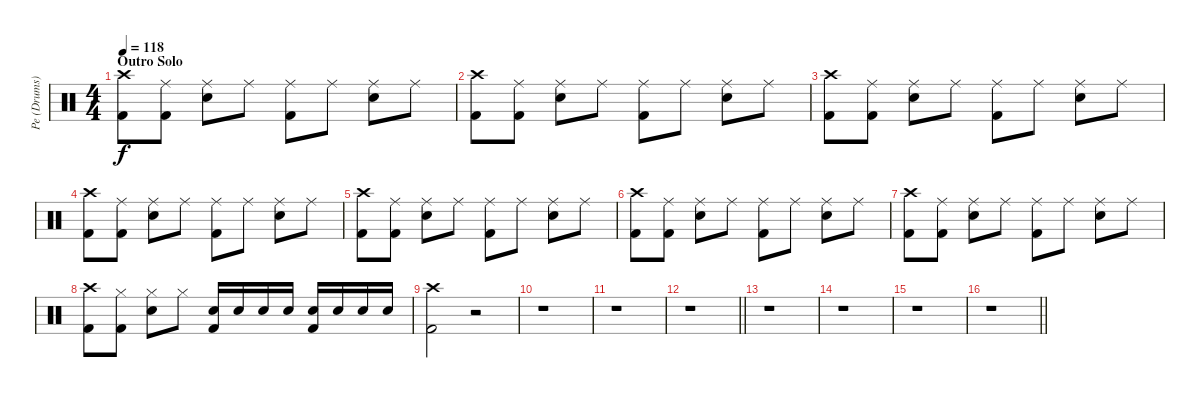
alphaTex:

\track ("Pe (Drums)" "Pe (Drums)") {instrument percussion}
\staff {score}
\articulation defaults
\ts (4 4)
\section ("" "Outro Solo")
\tempo 118
\clef neutral
\ks c
("Crash high (hit)" "Kick (hit) 2").8{dy f} ("Ride (middle)" "Kick (hit) 2").8 ("Ride (middle)" "Snare (hit) 2").8 "Ride (middle)".8 ("Ride (middle)" "Kick (hit) 2").8 "Ride (middle)".8 ("Ride (middle)" "Snare (hit) 2").8 "Ride (middle)".8 |
("Crash high (hit)" "Kick (hit) 2").8 ("Ride (middle)" "Kick (hit) 2").8 ("Ride (middle)" "Snare (hit) 2").8 "Ride (middle)".8 ("Ride (middle)" "Kick (hit) 2").8 "Ride (middle)".8 ("Ride (middle)" "Snare (hit) 2").8 "Ride (middle)".8 |
("Crash high (hit)" "Kick (hit) 2").8 ("Ride (middle)" "Kick (hit) 2").8 ("Ride (middle)" "Snare (hit) 2").8 "Ride (middle)".8 ("Ride (middle)" "Kick (hit) 2").8 "Ride (middle)".8 ("Ride (middle)" "Snare (hit) 2").8 "Ride (middle)".8 |
("Crash high (hit)" "Kick (hit) 2").8 ("Ride (middle)" "Kick (hit) 2").8 ("Ride (middle)" "Snare (hit) 2").8 "Ride (middle)".8 ("Ride (middle)" "Kick (hit) 2").8 "Ride (middle)".8 ("Ride (middle)" "Snare (hit) 2").8 "Ride (middle)".8 |
("Crash high (hit)" "Kick (hit) 2").8 ("Ride (middle)" "Kick (hit) 2").8 ("Ride (middle)" "Snare (hit) 2").8 "Ride (middle)".8 ("Ride (middle)" "Kick (hit) 2").8 "Ride (middle)".8 ("Ride (middle)" "Snare (hit) 2").8 "Ride (middle)".8 |
("Crash high (hit)" "Kick (hit) 2").8 ("Ride (middle)" "Kick (hit) 2").8 ("Ride (middle)" "Snare (hit) 2").8 "Ride (middle)".8 ("Ride (middle)" "Kick (hit) 2").8 "Ride (middle)".8 ("Ride (middle)" "Snare (hit) 2").8 "Ride (middle)".8 |
("Crash high (hit)" "Kick (hit) 2").8 ("Ride (middle)" "Kick (hit) 2").8 ("Ride (middle)" "Snare (hit) 2").8 "Ride (middle)".8 ("Ride (middle)" "Kick (hit) 2").8 "Ride (middle)".8 ("Ride (middle)" "Snare (hit) 2").8 "Ride (middle)".8 |
("Crash high (hit)" "Kick (hit) 2").8 ("Hi-Hat (closed)" "Kick (hit) 2").8 ("Hi-Hat (closed)" "Snare (hit) 2").8 "Hi-Hat (closed)".8 ("Snare (hit) 2" "Kick (hit) 2").16 "Snare (hit) 2".16 "Snare (hit) 2".16 "Snare (hit) 2".16 ("Snare (hit) 2" "Kick (hit) 2").16 "Snare (hit) 2".16 "Snare (hit) 2".16 "Snare (hit) 2".16 |
("Crash high (hit)" "Kick (hit) 2").2 r.2 |
r.1 |
r.1 |
\barLineRight lightlight
r.1 |
r.1 |
r.1 |
r.1 |
\barLineRight lightlight
r.1
